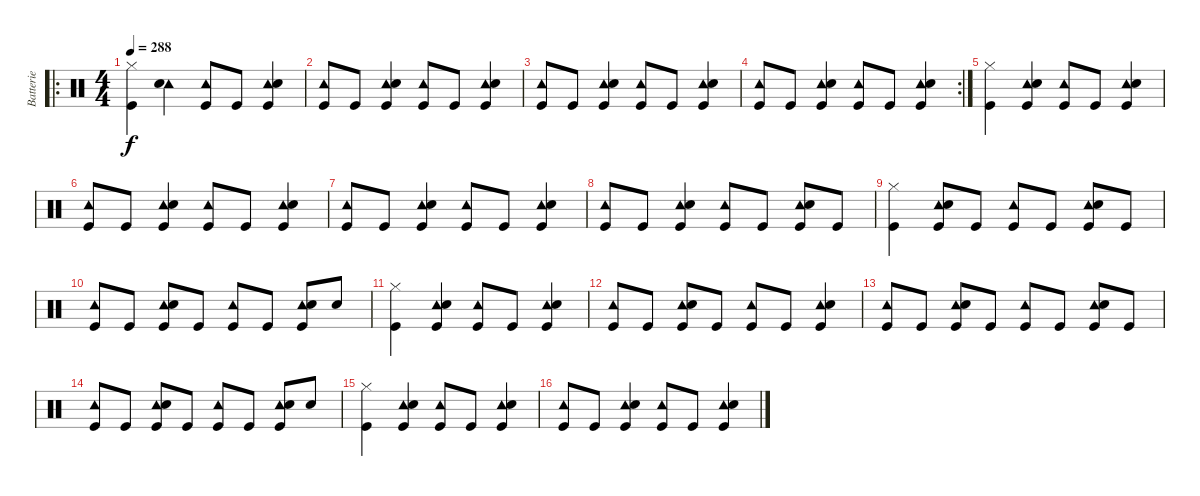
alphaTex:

\track ("Batterie" "Batterie") {instrument percussion}
\staff {score}
\articulation defaults
\ro
\ts (4 4)
\tempo 288
\clef neutral
\ks c
("Hi-Hat (closed)" "Kick (hit)").4{dy f} ("Tambourine (hit)" "Snare (hit) 2").4 ("Tambourine (hit)" "Kick (hit)").8 "Kick (hit)".8 ("Tambourine (hit)" "Snare (hit) 2" "Kick (hit)").4 |
("Tambourine (hit)" "Kick (hit)").8 "Kick (hit)".8 ("Tambourine (hit)" "Snare (hit) 2" "Kick (hit)").4 ("Tambourine (hit)" "Kick (hit)").8 "Kick (hit)".8 ("Tambourine (hit)" "Snare (hit) 2" "Kick (hit)").4 |
("Tambourine (hit)" "Kick (hit)").8 "Kick (hit)".8 ("Tambourine (hit)" "Snare (hit) 2" "Kick (hit)").4 ("Tambourine (hit)" "Kick (hit)").8 "Kick (hit)".8 ("Tambourine (hit)" "Snare (hit) 2" "Kick (hit)").4 |
\rc 2
("Tambourine (hit)" "Kick (hit)").8 "Kick (hit)".8 ("Tambourine (hit)" "Snare (hit) 2" "Kick (hit)").4 ("Tambourine (hit)" "Kick (hit)").8 "Kick (hit)".8 ("Tambourine (hit)" "Snare (hit) 2" "Kick (hit)").4 |
("Hi-Hat (closed)" "Kick (hit)").4 ("Tambourine (hit)" "Snare (hit) 2" "Kick (hit)").4 ("Tambourine (hit)" "Kick (hit)").8 "Kick (hit)".8 ("Tambourine (hit)" "Snare (hit) 2" "Kick (hit)").4 |
("Tambourine (hit)" "Kick (hit)").8 "Kick (hit)".8 ("Tambourine (hit)" "Snare (hit) 2" "Kick (hit)").4 ("Tambourine (hit)" "Kick (hit)").8 "Kick (hit)".8 ("Tambourine (hit)" "Snare (hit) 2" "Kick (hit)").4 |
("Tambourine (hit)" "Kick (hit)").8 "Kick (hit)".8 ("Tambourine (hit)" "Snare (hit) 2" "Kick (hit)").4 ("Tambourine (hit)" "Kick (hit)").8 "Kick (hit)".8 ("Tambourine (hit)" "Snare (hit) 2" "Kick (hit)").4 |
("Tambourine (hit)" "Kick (hit)").8 "Kick (hit)".8 ("Tambourine (hit)" "Snare (hit) 2" "Kick (hit)").4 ("Tambourine (hit)" "Kick (hit)").8 "Kick (hit)".8 ("Tambourine (hit)" "Snare (hit) 2" "Kick (hit)").8 "Kick (hit)".8 |
("Hi-Hat (closed)" "Kick (hit)").4 ("Tambourine (hit)" "Snare (hit) 2" "Kick (hit)").8 "Kick (hit)".8 ("Tambourine (hit)" "Kick (hit)").8 "Kick (hit)".8 ("Tambourine (hit)" "Snare (hit) 2" "Kick (hit)").8 "Kick (hit)".8 |
("Tambourine (hit)" "Kick (hit)").8 "Kick (hit)".8 ("Tambourine (hit)" "Snare (hit) 2" "Kick (hit)").8 "Kick (hit)".8 ("Tambourine (hit)" "Kick (hit)").8 "Kick (hit)".8 ("Tambourine (hit)" "Snare (hit) 2" "Kick (hit)").8 "Snare (hit) 2".8 |
("Hi-Hat (closed)" "Kick (hit)").4 ("Tambourine (hit)" "Snare (hit) 2" "Kick (hit)").4 ("Tambourine (hit)" "Kick (hit)").8 "Kick (hit)".8 ("Tambourine (hit)" "Snare (hit) 2" "Kick (hit)").4 |
("Tambourine (hit)" "Kick (hit)").8 "Kick (hit)".8 ("Tambourine (hit)" "Snare (hit) 2" "Kick (hit)").8 "Kick (hit)".8 ("Tambourine (hit)" "Kick (hit)").8 "Kick (hit)".8 ("Tambourine (hit)" "Snare (hit) 2" "Kick (hit)").4 |
("Tambourine (hit)" "Kick (hit)").8 "Kick (hit)".8 ("Tambourine (hit)" "Snare (hit) 2" "Kick (hit)").8 "Kick (hit)".8 ("Tambourine (hit)" "Kick (hit)").8 "Kick (hit)".8 ("Tambourine (hit)" "Snare (hit) 2" "Kick (hit)").8 "Kick (hit)".8 |
("Tambourine (hit)" "Kick (hit)").8 "Kick (hit)".8 ("Tambourine (hit)" "Snare (hit) 2" "Kick (hit)").8 "Kick (hit)".8 ("Tambourine (hit)" "Kick (hit)").8 "Kick (hit)".8 ("Tambourine (hit)" "Snare (hit) 2" "Kick (hit)").8 "Snare (hit) 2".8 |
("Hi-Hat (closed)" "Kick (hit)").4 ("Tambourine (hit)" "Snare (hit) 2" "Kick (hit)").4 ("Tambourine (hit)" "Kick (hit)").8 "Kick (hit)".8 ("Tambourine (hit)" "Snare (hit) 2" "Kick (hit)").4 |
("Tambourine (hit)" "Kick (hit)").8 "Kick (hit)".8 ("Tambourine (hit)" "Snare (hit) 2" "Kick (hit)").4 ("Tambourine (hit)" "Kick (hit)").8 "Kick (hit)".8 ("Tambourine (hit)" "Snare (hit) 2" "Kick (hit)").4
